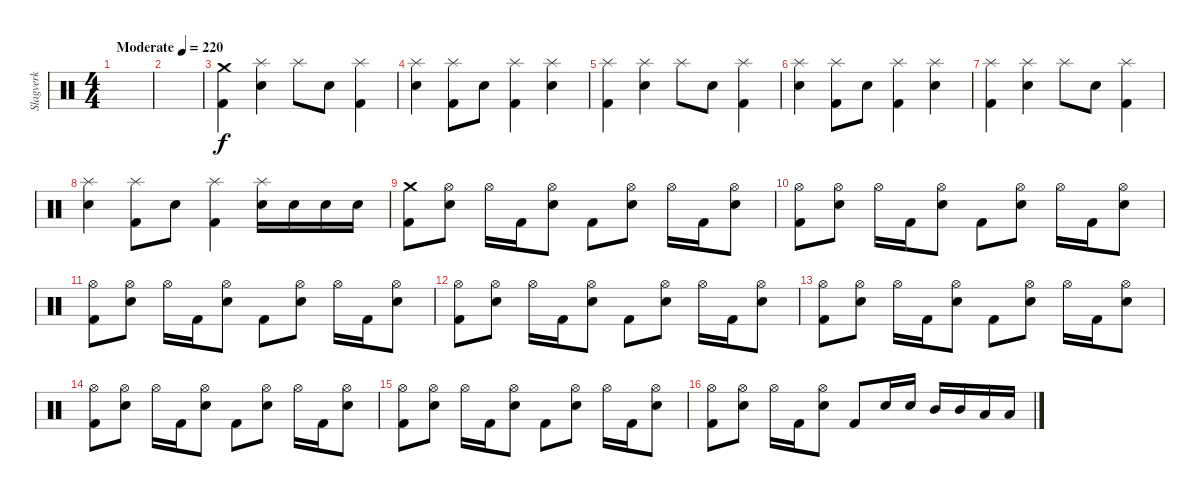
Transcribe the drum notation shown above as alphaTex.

\track ("Slagverk" "Slagverk") {instrument percussion}
\staff {score}
\articulation defaults
\ts (4 4)
\tempo (220 "Moderate")
\clef neutral
\ks c
|
|
("Crash medium (hit)" "Kick (hit) 2").4 ("Electric Snare (hit)" "Splash (hit)").4 "Splash (hit)".8 "Electric Snare (hit)".8 ("Splash (hit)" "Kick (hit) 2").4 |
("Electric Snare (hit)" "Splash (hit)").4 ("Splash (hit)" "Kick (hit) 2").8 "Electric Snare (hit)".8 ("Splash (hit)" "Kick (hit) 2").4 ("Electric Snare (hit)" "Splash (hit)").4 |
("Splash (hit)" "Kick (hit) 2").4 ("Electric Snare (hit)" "Splash (hit)").4 "Splash (hit)".8 "Electric Snare (hit)".8 ("Splash (hit)" "Kick (hit) 2").4 |
("Electric Snare (hit)" "Splash (hit)").4 ("Splash (hit)" "Kick (hit) 2").8 "Electric Snare (hit)".8 ("Splash (hit)" "Kick (hit) 2").4 ("Electric Snare (hit)" "Splash (hit)").4 |
("Splash (hit)" "Kick (hit) 2").4 ("Electric Snare (hit)" "Splash (hit)").4 "Splash (hit)".8 "Electric Snare (hit)".8 ("Splash (hit)" "Kick (hit) 2").4 |
("Electric Snare (hit)" "Splash (hit)").4 ("Splash (hit)" "Kick (hit) 2").8 "Electric Snare (hit)".8 ("Splash (hit)" "Kick (hit) 2").4 ("Electric Snare (hit)" "Splash (hit)").16 "Electric Snare (hit)".16 "Electric Snare (hit)".16 "Electric Snare (hit)".16 |
("Crash medium (hit)" "Kick (hit) 2").8 ("Electric Snare (hit)" "Hi-Hat (open)").8 "Hi-Hat (open)".16 "Kick (hit) 2".16 ("Electric Snare (hit)" "Hi-Hat (open)").8 "Kick (hit) 2".8 ("Electric Snare (hit)" "Hi-Hat (open)").8 "Hi-Hat (open)".16 "Kick (hit) 2".16 ("Electric Snare (hit)" "Hi-Hat (open)").8 |
("Hi-Hat (open)" "Kick (hit) 2").8 ("Electric Snare (hit)" "Hi-Hat (open)").8 "Hi-Hat (open)".16 "Kick (hit) 2".16 ("Electric Snare (hit)" "Hi-Hat (open)").8 "Kick (hit) 2".8 ("Electric Snare (hit)" "Hi-Hat (open)").8 "Hi-Hat (open)".16 "Kick (hit) 2".16 ("Electric Snare (hit)" "Hi-Hat (open)").8 |
("Hi-Hat (open)" "Kick (hit) 2").8 ("Electric Snare (hit)" "Hi-Hat (open)").8 "Hi-Hat (open)".16 "Kick (hit) 2".16 ("Electric Snare (hit)" "Hi-Hat (open)").8 "Kick (hit) 2".8 ("Electric Snare (hit)" "Hi-Hat (open)").8 "Hi-Hat (open)".16 "Kick (hit) 2".16 ("Electric Snare (hit)" "Hi-Hat (open)").8 |
("Hi-Hat (open)" "Kick (hit) 2").8 ("Electric Snare (hit)" "Hi-Hat (open)").8 "Hi-Hat (open)".16 "Kick (hit) 2".16 ("Electric Snare (hit)" "Hi-Hat (open)").8 "Kick (hit) 2".8 ("Electric Snare (hit)" "Hi-Hat (open)").8 "Hi-Hat (open)".16 "Kick (hit) 2".16 ("Electric Snare (hit)" "Hi-Hat (open)").8 |
("Hi-Hat (open)" "Kick (hit) 2").8 ("Electric Snare (hit)" "Hi-Hat (open)").8 "Hi-Hat (open)".16 "Kick (hit) 2".16 ("Electric Snare (hit)" "Hi-Hat (open)").8 "Kick (hit) 2".8 ("Electric Snare (hit)" "Hi-Hat (open)").8 "Hi-Hat (open)".16 "Kick (hit) 2".16 ("Electric Snare (hit)" "Hi-Hat (open)").8 |
("Hi-Hat (open)" "Kick (hit) 2").8 ("Electric Snare (hit)" "Hi-Hat (open)").8 "Hi-Hat (open)".16 "Kick (hit) 2".16 ("Electric Snare (hit)" "Hi-Hat (open)").8 "Kick (hit) 2".8 ("Electric Snare (hit)" "Hi-Hat (open)").8 "Hi-Hat (open)".16 "Kick (hit) 2".16 ("Electric Snare (hit)" "Hi-Hat (open)").8 |
("Hi-Hat (open)" "Kick (hit) 2").8 ("Electric Snare (hit)" "Hi-Hat (open)").8 "Hi-Hat (open)".16 "Kick (hit) 2".16 ("Electric Snare (hit)" "Hi-Hat (open)").8 "Kick (hit) 2".8 ("Electric Snare (hit)" "Hi-Hat (open)").8 "Hi-Hat (open)".16 "Kick (hit) 2".16 ("Electric Snare (hit)" "Hi-Hat (open)").8 |
("Hi-Hat (open)" "Kick (hit) 2").8 ("Electric Snare (hit)" "Hi-Hat (open)").8 "Hi-Hat (open)".16 "Kick (hit) 2".16 ("Electric Snare (hit)" "Hi-Hat (open)").8 "Kick (hit) 2".8 "Electric Snare (hit)".16 "Electric Snare (hit)".16 "Mid Tom (hit)".16 "Mid Tom (hit)".16 "Low Tom (hit)".16 "Low Tom (hit)".16
